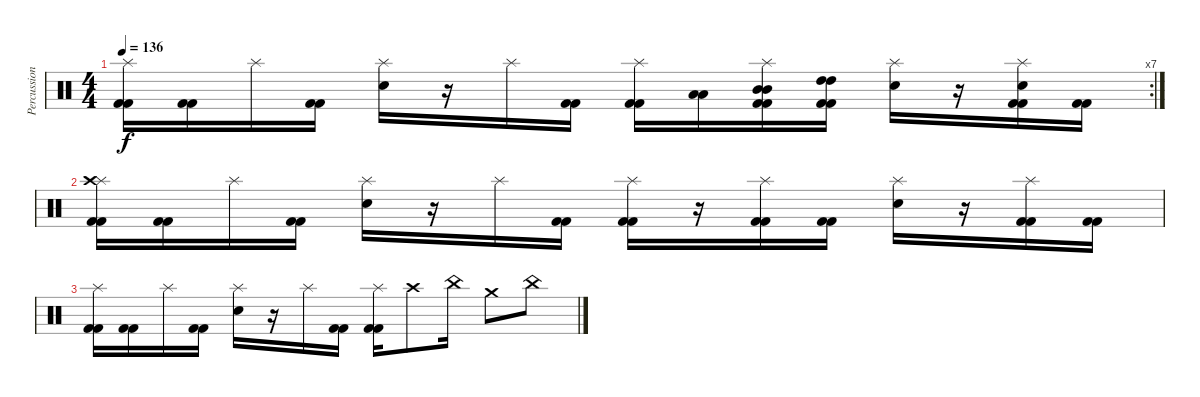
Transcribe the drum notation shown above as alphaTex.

\track ("Percussion" "Percussion") {instrument percussion}
\staff {score}
\articulation defaults
\rc 7
\ts (4 4)
\tempo 136
\clef neutral
\ks c
("Splash (hit)" "Kick (hit) 2" "Kick (hit) 2").16{dy f} ("Kick (hit) 2" "Kick (hit) 2").16 "Splash (hit)".16 ("Kick (hit) 2" "Kick (hit) 2").16 ("Splash (hit)" "Snare (hit) 2").16 r.16 "Splash (hit)".16 ("Kick (hit) 2" "Kick (hit) 2").16 ("Splash (hit)" "Kick (hit) 2" "Kick (hit) 2").16 ("Low Tom (hit)" "Low Tom (hit)").16 ("Splash (hit)" "Mid Tom (hit)" "Mid Tom (hit)" "Kick (hit) 2" "Kick (hit) 2").16 ("High Tom (hit)" "High Tom (hit)" "Kick (hit) 2" "Kick (hit) 2").16 ("Splash (hit)" "Snare (hit) 2").16 r.16 ("Splash (hit)" "Snare (hit) 2" "Kick (hit) 2" "Kick (hit) 2").16 ("Kick (hit) 2" "Kick (hit) 2").16 |
("Splash (hit)" "Crash high (hit)" "Kick (hit) 2" "Kick (hit) 2").16 ("Kick (hit) 2" "Kick (hit) 2").16 "Splash (hit)".16 ("Kick (hit) 2" "Kick (hit) 2").16 ("Splash (hit)" "Snare (hit) 2").16 r.16 "Splash (hit)".16 ("Kick (hit) 2" "Kick (hit) 2").16 ("Splash (hit)" "Kick (hit) 2" "Kick (hit) 2").16 r.16 ("Splash (hit)" "Kick (hit) 2" "Kick (hit) 2").16 ("Kick (hit) 2" "Kick (hit) 2").16 ("Splash (hit)" "Snare (hit) 2").16 r.16 ("Splash (hit)" "Kick (hit) 2" "Kick (hit) 2").16 ("Kick (hit) 2" "Kick (hit) 2").16 |
("Splash (hit)" "Kick (hit) 2" "Kick (hit) 2").16 ("Kick (hit) 2" "Kick (hit) 2").16 "Splash (hit)".16 ("Kick (hit) 2" "Kick (hit) 2").16 ("Splash (hit)" "Snare (hit) 2").16 r.16 "Splash (hit)".16 ("Kick (hit) 2" "Kick (hit) 2").16 ("Splash (hit)" "Kick (hit) 2" "Kick (hit) 2").16 "Crash high (hit)".8 "China (hit)".16 "Crash medium (hit)".8 "China (hit)".8
